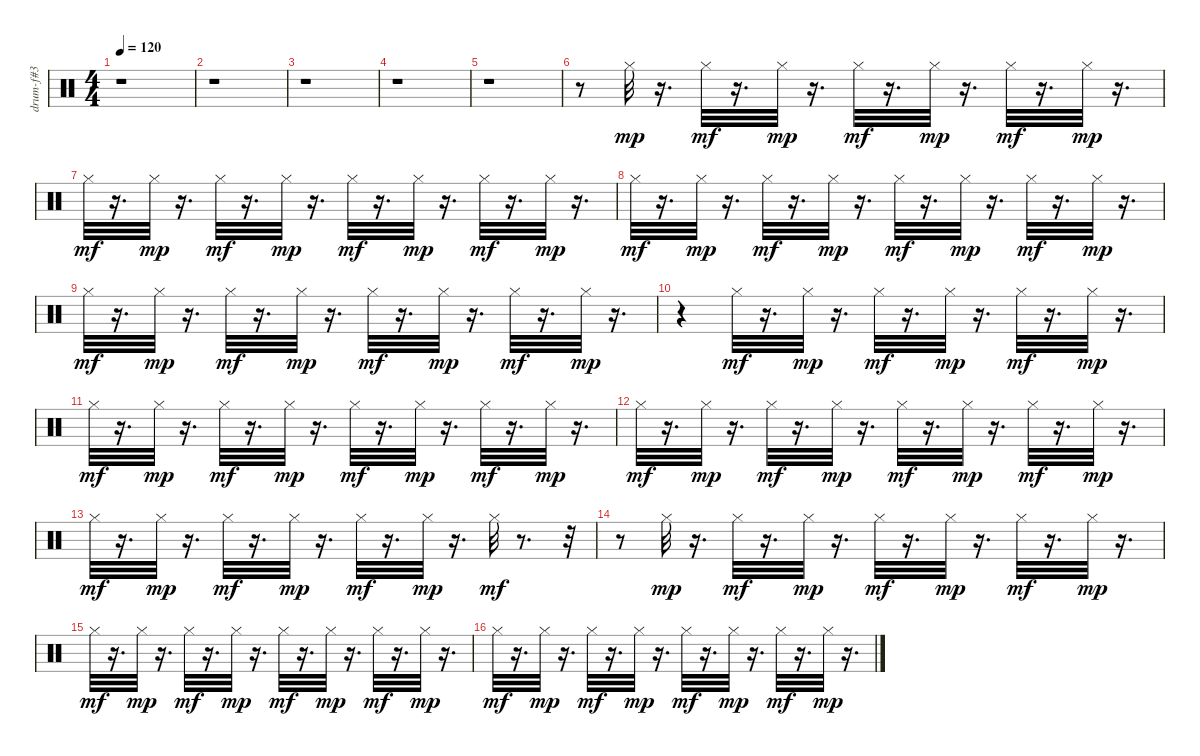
\track ("drum-f#3" "drum-f#3") {instrument percussion}
\staff {score}
\articulation defaults
\ts (4 4)
\tempo 120
\clef neutral
\ks c
r.1{dy mp} |
r.1 |
r.1 |
r.1 |
r.1 |
r.8 "Hi-Hat (closed)".32 r.16{d} "Hi-Hat (closed)".32{dy mf} r.16{d} "Hi-Hat (closed)".32{dy mp} r.16{d} "Hi-Hat (closed)".32{dy mf} r.16{d} "Hi-Hat (closed)".32{dy mp} r.16{d} "Hi-Hat (closed)".32{dy mf} r.16{d} "Hi-Hat (closed)".32{dy mp} r.16{d} |
"Hi-Hat (closed)".32{dy mf} r.16{d} "Hi-Hat (closed)".32{dy mp} r.16{d} "Hi-Hat (closed)".32{dy mf} r.16{d} "Hi-Hat (closed)".32{dy mp} r.16{d} "Hi-Hat (closed)".32{dy mf} r.16{d} "Hi-Hat (closed)".32{dy mp} r.16{d} "Hi-Hat (closed)".32{dy mf} r.16{d} "Hi-Hat (closed)".32{dy mp} r.16{d} |
"Hi-Hat (closed)".32{dy mf} r.16{d} "Hi-Hat (closed)".32{dy mp} r.16{d} "Hi-Hat (closed)".32{dy mf} r.16{d} "Hi-Hat (closed)".32{dy mp} r.16{d} "Hi-Hat (closed)".32{dy mf} r.16{d} "Hi-Hat (closed)".32{dy mp} r.16{d} "Hi-Hat (closed)".32{dy mf} r.16{d} "Hi-Hat (closed)".32{dy mp} r.16{d} |
"Hi-Hat (closed)".32{dy mf} r.16{d} "Hi-Hat (closed)".32{dy mp} r.16{d} "Hi-Hat (closed)".32{dy mf} r.16{d} "Hi-Hat (closed)".32{dy mp} r.16{d} "Hi-Hat (closed)".32{dy mf} r.16{d} "Hi-Hat (closed)".32{dy mp} r.16{d} "Hi-Hat (closed)".32{dy mf} r.16{d} "Hi-Hat (closed)".32{dy mp} r.16{d} |
r.4 "Hi-Hat (closed)".32{dy mf} r.16{d} "Hi-Hat (closed)".32{dy mp} r.16{d} "Hi-Hat (closed)".32{dy mf} r.16{d} "Hi-Hat (closed)".32{dy mp} r.16{d} "Hi-Hat (closed)".32{dy mf} r.16{d} "Hi-Hat (closed)".32{dy mp} r.16{d} |
"Hi-Hat (closed)".32{dy mf} r.16{d} "Hi-Hat (closed)".32{dy mp} r.16{d} "Hi-Hat (closed)".32{dy mf} r.16{d} "Hi-Hat (closed)".32{dy mp} r.16{d} "Hi-Hat (closed)".32{dy mf} r.16{d} "Hi-Hat (closed)".32{dy mp} r.16{d} "Hi-Hat (closed)".32{dy mf} r.16{d} "Hi-Hat (closed)".32{dy mp} r.16{d} |
"Hi-Hat (closed)".32{dy mf} r.16{d} "Hi-Hat (closed)".32{dy mp} r.16{d} "Hi-Hat (closed)".32{dy mf} r.16{d} "Hi-Hat (closed)".32{dy mp} r.16{d} "Hi-Hat (closed)".32{dy mf} r.16{d} "Hi-Hat (closed)".32{dy mp} r.16{d} "Hi-Hat (closed)".32{dy mf} r.16{d} "Hi-Hat (closed)".32{dy mp} r.16{d} |
"Hi-Hat (closed)".32{dy mf} r.16{d} "Hi-Hat (closed)".32{dy mp} r.16{d} "Hi-Hat (closed)".32{dy mf} r.16{d} "Hi-Hat (closed)".32{dy mp} r.16{d} "Hi-Hat (closed)".32{dy mf} r.16{d} "Hi-Hat (closed)".32{dy mp} r.16{d} "Hi-Hat (closed)".32{dy mf} r.8{d} r.32 |
r.8 "Hi-Hat (closed)".32{dy mp} r.16{d} "Hi-Hat (closed)".32{dy mf} r.16{d} "Hi-Hat (closed)".32{dy mp} r.16{d} "Hi-Hat (closed)".32{dy mf} r.16{d} "Hi-Hat (closed)".32{dy mp} r.16{d} "Hi-Hat (closed)".32{dy mf} r.16{d} "Hi-Hat (closed)".32{dy mp} r.16{d} |
"Hi-Hat (closed)".32{dy mf} r.16{d} "Hi-Hat (closed)".32{dy mp} r.16{d} "Hi-Hat (closed)".32{dy mf} r.16{d} "Hi-Hat (closed)".32{dy mp} r.16{d} "Hi-Hat (closed)".32{dy mf} r.16{d} "Hi-Hat (closed)".32{dy mp} r.16{d} "Hi-Hat (closed)".32{dy mf} r.16{d} "Hi-Hat (closed)".32{dy mp} r.16{d} |
"Hi-Hat (closed)".32{dy mf} r.16{d} "Hi-Hat (closed)".32{dy mp} r.16{d} "Hi-Hat (closed)".32{dy mf} r.16{d} "Hi-Hat (closed)".32{dy mp} r.16{d} "Hi-Hat (closed)".32{dy mf} r.16{d} "Hi-Hat (closed)".32{dy mp} r.16{d} "Hi-Hat (closed)".32{dy mf} r.16{d} "Hi-Hat (closed)".32{dy mp} r.16{d}
